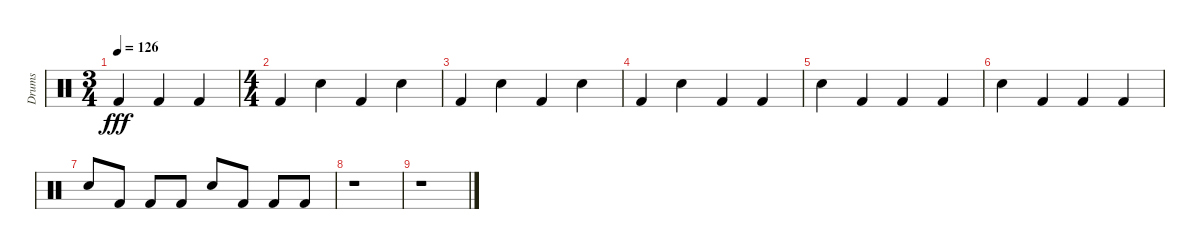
\track ("Drums" "Drums") {instrument percussion}
\staff {score}
\articulation defaults
\ts (3 4)
\tempo 126
\clef neutral
\ks c "Kick (hit) 2".4{dy fff} "Kick (hit) 2".4 "Kick (hit) 2".4
|
\ts (4 4)
"Kick (hit) 2".4 "Snare (hit) 2".4 "Kick (hit) 2".4 "Snare (hit) 2".4 |
"Kick (hit) 2".4 "Snare (hit) 2".4 "Kick (hit) 2".4 "Snare (hit) 2".4 |
"Kick (hit) 2".4 "Snare (hit) 2".4 "Kick (hit) 2".4 "Kick (hit) 2".4 |
"Snare (hit) 2".4 "Kick (hit) 2".4 "Kick (hit) 2".4 "Kick (hit) 2".4 |
"Snare (hit) 2".4 "Kick (hit) 2".4 "Kick (hit) 2".4 "Kick (hit) 2".4 |
"Snare (hit) 2".8 "Kick (hit) 2".8 "Kick (hit) 2".8 "Kick (hit) 2".8 "Snare (hit) 2".8 "Kick (hit) 2".8 "Kick (hit) 2".8 "Kick (hit) 2".8 |
r.1 |
r.1
